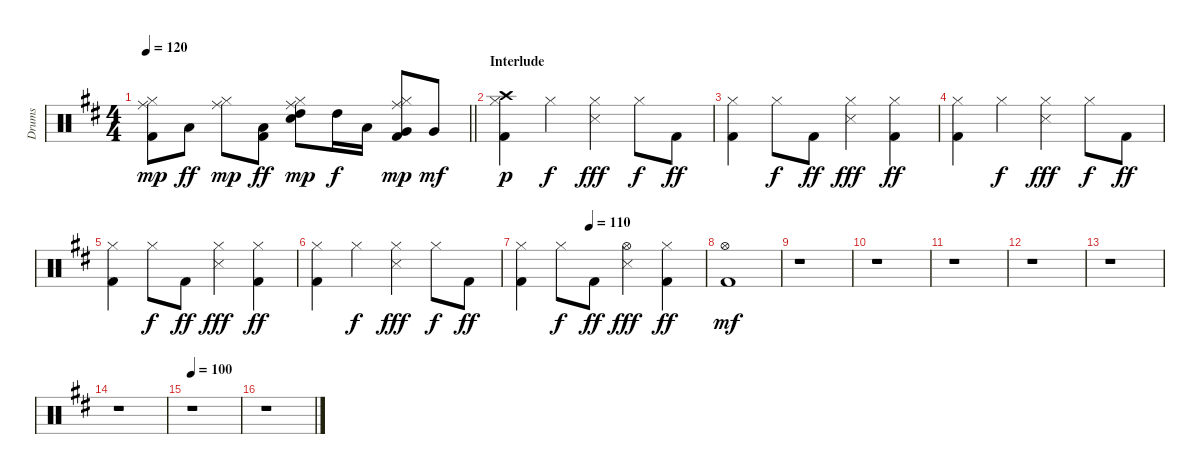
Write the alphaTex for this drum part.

\track ("Drums" "Drums") {instrument percussion}
\staff {score}
\articulation defaults
\ts (4 4)
\tempo 120
\clef neutral
\barLineRight lightlight
\ks d
("Kick (hit) 2" "Hi-Hat (closed)" "Ride (middle)").8{dy mp} "Low Tom (hit)".8{dy ff} ("Hi-Hat (closed)" "Ride (middle)").8{dy mp} ("Kick (hit) 2" "Low Tom (hit)").8{dy ff} ("Snare (hit) 2" "Hi-Hat (closed)" "High Tom (hit)" "Ride (middle)").8{dy mp} "High Tom (hit)".16{dy f} "Low Tom (hit)".16 ("Kick (hit) 2" "Hi-Hat (closed)" "Very Low Tom (hit)" "Ride (middle)").8{dy mp} "Very Low Tom (hit)".8{dy mf} |
\section ("" "Interlude")
("Kick (hit) 2" "Hi-Hat (closed)" "Crash high (hit)").4{dy p} "Hi-Hat (closed)".4{dy f} ("Snare (side stick) 3" "Hi-Hat (closed)").4{dy fff} "Hi-Hat (closed)".8{dy f} "Kick (hit) 2".8{dy ff} |
("Kick (hit) 2" "Hi-Hat (closed)").4 "Hi-Hat (closed)".8{dy f} "Kick (hit) 2".8{dy ff} ("Snare (side stick) 3" "Hi-Hat (closed)").4{dy fff} ("Kick (hit) 2" "Hi-Hat (closed)").4{dy ff} |
("Kick (hit) 2" "Hi-Hat (closed)").4 "Hi-Hat (closed)".4{dy f} ("Snare (side stick) 3" "Hi-Hat (closed)").4{dy fff} "Hi-Hat (closed)".8{dy f} "Kick (hit) 2".8{dy ff} |
("Kick (hit) 2" "Hi-Hat (closed)").4 "Hi-Hat (closed)".8{dy f} "Kick (hit) 2".8{dy ff} ("Snare (side stick) 3" "Hi-Hat (closed)").4{dy fff} ("Kick (hit) 2" "Hi-Hat (closed)").4{dy ff} |
("Kick (hit) 2" "Hi-Hat (closed)").4 "Hi-Hat (closed)".4{dy f} ("Snare (side stick) 3" "Hi-Hat (closed)").4{dy fff} "Hi-Hat (closed)".8{dy f} "Kick (hit) 2".8{dy ff} |
\tempo (110 0.375)
("Kick (hit) 2" "Hi-Hat (closed)").4 "Hi-Hat (closed)".8{dy f} "Kick (hit) 2".8{dy ff} ("Snare (side stick) 3" "Hi-Hat (open)").4{dy fff} ("Kick (hit) 2" "Hi-Hat (closed)").4{dy ff} |
("Kick (hit) 2" "Hi-Hat (open)").1{dy mf} |
r.1 |
r.1 |
r.1 |
r.1 |
r.1 |
r.1 |
\tempo 100
r.1 |
r.1
